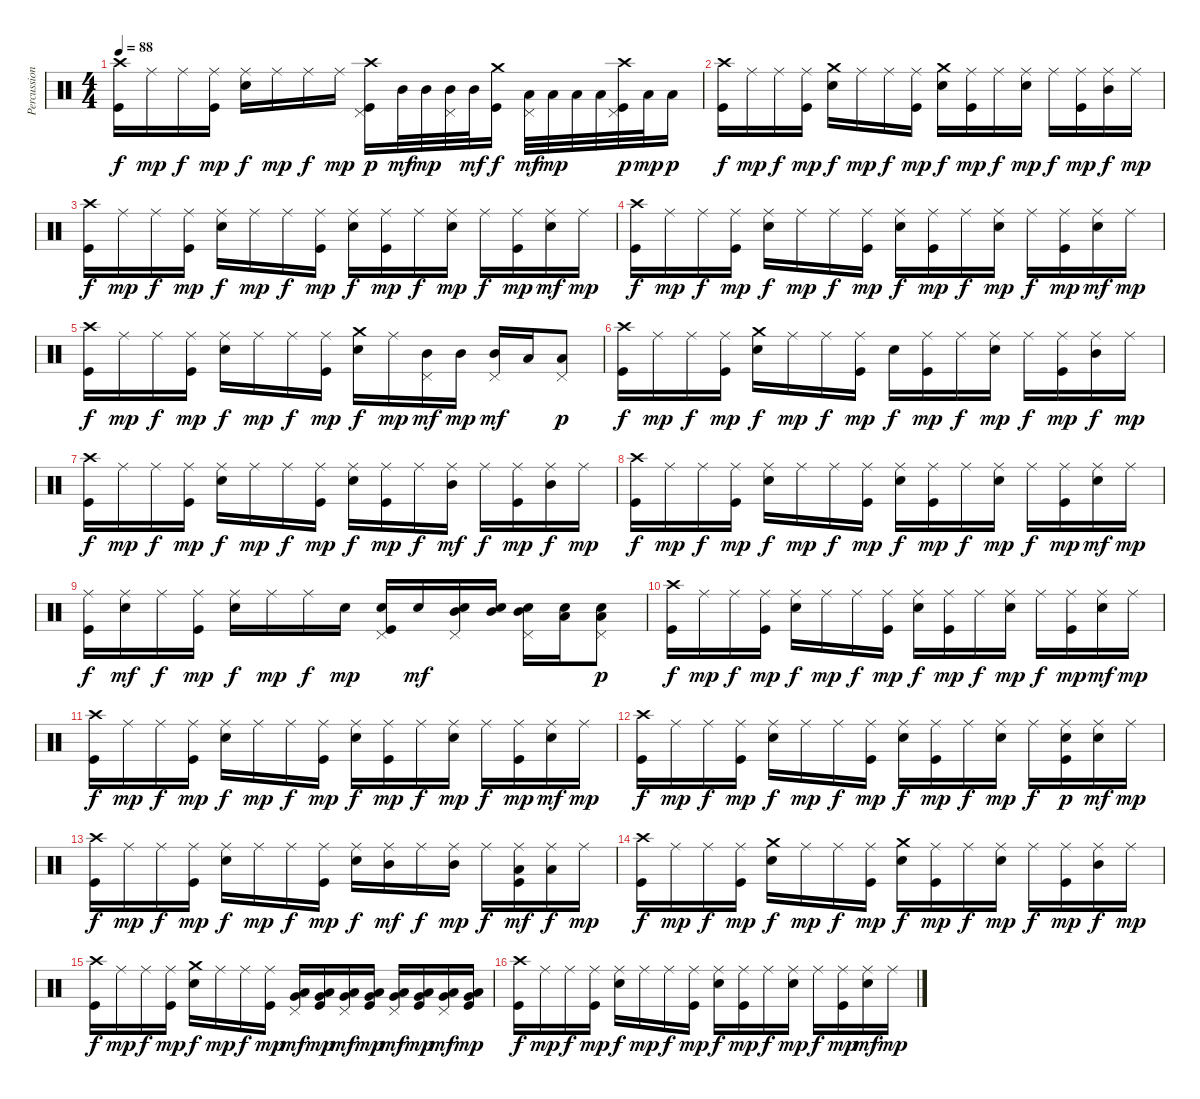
\track ("Percussion" "Percussion") {instrument percussion}
\staff {score}
\articulation defaults
\ts (4 4)
\tempo 88
\clef neutral
\ks c
("Crash high (hit)" "Kick (hit)").16{dy f} "Ride (middle)".16{dy mp} "Ride (middle)".16{dy f} ("Ride (middle)" "Kick (hit)").16{dy mp} ("Ride (middle)" "Snare (hit) 2").16{dy f} "Ride (middle)".16{dy mp} "Ride (middle)".16{dy f} "Ride (middle)".16{dy mp} ("Crash high (hit)" "Pedal Hi-Hat (hit)" "Kick (hit)").16{dy p} "Mid Tom (hit)".32{dy mf} "Mid Tom (hit)".32{dy mp} ("Pedal Hi-Hat (hit)" "Mid Tom (hit)").32 "Mid Tom (hit)".32{dy mf} ("Crash medium (hit)" "Kick (hit)").16{dy f} ("Pedal Hi-Hat (hit)" "Low Tom (hit)").32{dy mf} "Low Tom (hit)".32{dy mp} "Low Tom (hit)".32 "Low Tom (hit)".32 ("Crash high (hit)" "Pedal Hi-Hat (hit)" "Kick (hit)").32{dy p} "Low Tom (hit)".32{dy mp} "Low Tom (hit)".16{dy p} |
("Crash high (hit)" "Kick (hit)").16{dy f} "Ride (middle)".16{dy mp} "Ride (middle)".16{dy f} ("Ride (middle)" "Kick (hit)").16{dy mp} ("Crash medium (hit)" "Snare (hit) 2").16{dy f} "Ride (middle)".16{dy mp} "Ride (middle)".16{dy f} ("Ride (middle)" "Kick (hit)").16{dy mp} ("Crash medium (hit)" "Snare (hit) 2").16{dy f} ("Ride (middle)" "Kick (hit)").16{dy mp} "Ride (middle)".16{dy f} ("Ride (middle)" "Snare (hit) 2").16{dy mp} "Ride (middle)".16{dy f} ("Ride (middle)" "Kick (hit)").16{dy mp} ("Ride (middle)" "Mid Tom (hit)").16{dy f} "Ride (middle)".16{dy mp} |
("Crash high (hit)" "Kick (hit)").16{dy f} "Ride (middle)".16{dy mp} "Ride (middle)".16{dy f} ("Ride (middle)" "Kick (hit)").16{dy mp} ("Ride (middle)" "Snare (hit) 2").16{dy f} "Ride (middle)".16{dy mp} "Ride (middle)".16{dy f} ("Ride (middle)" "Kick (hit)").16{dy mp} ("Ride (middle)" "Snare (hit) 2").16{dy f} ("Ride (middle)" "Kick (hit)").16{dy mp} "Ride (middle)".16{dy f} ("Ride (middle)" "Snare (hit) 2").16{dy mp} "Ride (middle)".16{dy f} ("Ride (middle)" "Kick (hit)").16{dy mp} ("Ride (middle)" "Snare (hit) 2").16{dy mf} "Ride (middle)".16{dy mp} |
("Crash high (hit)" "Kick (hit)").16{dy f} "Ride (middle)".16{dy mp} "Ride (middle)".16{dy f} ("Ride (middle)" "Kick (hit)").16{dy mp} ("Ride (middle)" "Snare (hit) 2").16{dy f} "Ride (middle)".16{dy mp} "Ride (middle)".16{dy f} ("Ride (middle)" "Kick (hit)").16{dy mp} ("Ride (middle)" "Snare (hit) 2").16{dy f} ("Ride (middle)" "Kick (hit)").16{dy mp} "Ride (middle)".16{dy f} ("Ride (middle)" "Snare (hit) 2").16{dy mp} "Ride (middle)".16{dy f} ("Ride (middle)" "Kick (hit)").16{dy mp} ("Ride (middle)" "Snare (hit) 2").16{dy mf} "Ride (middle)".16{dy mp} |
("Crash high (hit)" "Kick (hit)").16{dy f} "Ride (middle)".16{dy mp} "Ride (middle)".16{dy f} ("Ride (middle)" "Kick (hit)").16{dy mp} ("Ride (middle)" "Snare (hit) 2").16{dy f} "Ride (middle)".16{dy mp} "Ride (middle)".16{dy f} ("Ride (middle)" "Kick (hit)").16{dy mp} ("Crash medium (hit)" "Snare (hit) 2").16{dy f} "Ride (middle)".16{dy mp} ("Pedal Hi-Hat (hit)" "Mid Tom (hit)").16{dy mf} "Mid Tom (hit)".16{dy mp} ("Pedal Hi-Hat (hit)" "Mid Tom (hit)").16{dy mf} "Low Tom (hit)".16 ("Pedal Hi-Hat (hit)" "Low Tom (hit)").8{dy p} |
("Crash high (hit)" "Kick (hit)").16{dy f} "Ride (middle)".16{dy mp} "Ride (middle)".16{dy f} ("Ride (middle)" "Kick (hit)").16{dy mp} ("Crash medium (hit)" "Snare (hit) 2").16{dy f} "Ride (middle)".16{dy mp} "Ride (middle)".16{dy f} ("Ride (middle)" "Kick (hit)").16{dy mp} "Snare (hit) 2".16{dy f} ("Ride (middle)" "Kick (hit)").16{dy mp} "Ride (middle)".16{dy f} ("Ride (middle)" "Snare (hit) 2").16{dy mp} "Ride (middle)".16{dy f} ("Ride (middle)" "Kick (hit)").16{dy mp} ("Ride (middle)" "Mid Tom (hit)").16{dy f} "Ride (middle)".16{dy mp} |
("Crash high (hit)" "Kick (hit)").16{dy f} "Ride (middle)".16{dy mp} "Ride (middle)".16{dy f} ("Ride (middle)" "Kick (hit)").16{dy mp} ("Ride (middle)" "Snare (hit) 2").16{dy f} "Ride (middle)".16{dy mp} "Ride (middle)".16{dy f} ("Ride (middle)" "Kick (hit)").16{dy mp} ("Ride (middle)" "Snare (hit) 2").16{dy f} ("Ride (middle)" "Kick (hit)").16{dy mp} "Ride (middle)".16{dy f} ("Ride (middle)" "Mid Tom (hit)").16{dy mf} "Ride (middle)".16{dy f} ("Ride (middle)" "Kick (hit)").16{dy mp} ("Ride (middle)" "Mid Tom (hit)").16{dy f} "Ride (middle)".16{dy mp} |
("Crash high (hit)" "Kick (hit)").16{dy f} "Ride (middle)".16{dy mp} "Ride (middle)".16{dy f} ("Ride (middle)" "Kick (hit)").16{dy mp} ("Ride (middle)" "Snare (hit) 2").16{dy f} "Ride (middle)".16{dy mp} "Ride (middle)".16{dy f} ("Ride (middle)" "Kick (hit)").16{dy mp} ("Ride (middle)" "Snare (hit) 2").16{dy f} ("Ride (middle)" "Kick (hit)").16{dy mp} "Ride (middle)".16{dy f} ("Ride (middle)" "Snare (hit) 2").16{dy mp} "Ride (middle)".16{dy f} ("Ride (middle)" "Kick (hit)").16{dy mp} ("Ride (middle)" "Snare (hit) 2").16{dy mf} "Ride (middle)".16{dy mp} |
("Ride (middle)" "Kick (hit)").16{dy f} ("Ride (middle)" "Snare (hit) 2").16{dy mf} "Ride (middle)".16{dy f} ("Ride (middle)" "Kick (hit)").16{dy mp} ("Ride (middle)" "Snare (hit) 2").16{dy f} "Ride (middle)".16{dy mp} "Ride (middle)".16{dy f} "Snare (hit) 2".16{dy mp} ("Pedal Hi-Hat (hit)" "Snare (hit) 2" "Kick (hit)").16 "Snare (hit) 2".16{dy mf} ("Pedal Hi-Hat (hit)" "Mid Tom (hit)" "Snare (hit) 2").16 ("Mid Tom (hit)" "Snare (hit) 2").16 ("Pedal Hi-Hat (hit)" "Mid Tom (hit)" "Snare (hit) 2").16 ("Low Tom (hit)" "Snare (hit) 2").16 ("Pedal Hi-Hat (hit)" "Low Tom (hit)" "Snare (hit) 2").8{dy p} |
("Crash high (hit)" "Kick (hit)").16{dy f} "Ride (middle)".16{dy mp} "Ride (middle)".16{dy f} ("Ride (middle)" "Kick (hit)").16{dy mp} ("Ride (middle)" "Snare (hit) 2").16{dy f} "Ride (middle)".16{dy mp} "Ride (middle)".16{dy f} ("Ride (middle)" "Kick (hit)").16{dy mp} ("Ride (middle)" "Snare (hit) 2").16{dy f} ("Ride (middle)" "Kick (hit)").16{dy mp} "Ride (middle)".16{dy f} ("Ride (middle)" "Snare (hit) 2").16{dy mp} "Ride (middle)".16{dy f} ("Ride (middle)" "Kick (hit)").16{dy mp} ("Ride (middle)" "Snare (hit) 2").16{dy mf} "Ride (middle)".16{dy mp} |
("Crash high (hit)" "Kick (hit)").16{dy f} "Ride (middle)".16{dy mp} "Ride (middle)".16{dy f} ("Ride (middle)" "Kick (hit)").16{dy mp} ("Ride (middle)" "Snare (hit) 2").16{dy f} "Ride (middle)".16{dy mp} "Ride (middle)".16{dy f} ("Ride (middle)" "Kick (hit)").16{dy mp} ("Ride (middle)" "Snare (hit) 2").16{dy f} ("Ride (middle)" "Kick (hit)").16{dy mp} "Ride (middle)".16{dy f} ("Ride (middle)" "Snare (hit) 2").16{dy mp} "Ride (middle)".16{dy f} ("Ride (middle)" "Kick (hit)").16{dy mp} ("Ride (middle)" "Snare (hit) 2").16{dy mf} "Ride (middle)".16{dy mp} |
("Crash high (hit)" "Kick (hit)").16{dy f} "Ride (middle)".16{dy mp} "Ride (middle)".16{dy f} ("Ride (middle)" "Kick (hit)").16{dy mp} ("Ride (middle)" "Snare (hit) 2").16{dy f} "Ride (middle)".16{dy mp} "Ride (middle)".16{dy f} ("Ride (middle)" "Kick (hit)").16{dy mp} ("Ride (middle)" "Snare (hit) 2").16{dy f} ("Ride (middle)" "Kick (hit)").16{dy mp} "Ride (middle)".16{dy f} ("Ride (middle)" "Snare (hit) 2").16{dy mp} "Ride (middle)".16{dy f} ("Ride (middle)" "Snare (hit) 2" "Kick (hit)").16{dy p} ("Ride (middle)" "Snare (hit) 2").16{dy mf} "Ride (middle)".16{dy mp} |
("Crash high (hit)" "Kick (hit)").16{dy f} "Ride (middle)".16{dy mp} "Ride (middle)".16{dy f} ("Ride (middle)" "Kick (hit)").16{dy mp} ("Ride (middle)" "Snare (hit) 2").16{dy f} "Ride (middle)".16{dy mp} "Ride (middle)".16{dy f} ("Ride (middle)" "Kick (hit)").16{dy mp} ("Ride (middle)" "Snare (hit) 2").16{dy f} ("Ride (middle)" "Mid Tom (hit)").16{dy mf} "Ride (middle)".16{dy f} ("Ride (middle)" "Mid Tom (hit)").16{dy mp} "Ride (middle)".16{dy f} ("Ride (middle)" "Low Tom (hit)" "Kick (hit)").16{dy mf} ("Ride (middle)" "Low Tom (hit)").16{dy f} "Ride (middle)".16{dy mp} |
("Crash high (hit)" "Kick (hit)").16{dy f} "Ride (middle)".16{dy mp} "Ride (middle)".16{dy f} ("Ride (middle)" "Kick (hit)").16{dy mp} ("Crash medium (hit)" "Snare (hit) 2").16{dy f} "Ride (middle)".16{dy mp} "Ride (middle)".16{dy f} ("Ride (middle)" "Kick (hit)").16{dy mp} ("Crash medium (hit)" "Snare (hit) 2").16{dy f} ("Ride (middle)" "Kick (hit)").16{dy mp} "Ride (middle)".16{dy f} ("Ride (middle)" "Snare (hit) 2").16{dy mp} "Ride (middle)".16{dy f} ("Ride (middle)" "Kick (hit)").16{dy mp} ("Ride (middle)" "Mid Tom (hit)").16{dy f} "Ride (middle)".16{dy mp} |
("Crash high (hit)" "Kick (hit)").16{dy f} "Ride (middle)".16{dy mp} "Ride (middle)".16{dy f} ("Ride (middle)" "Kick (hit)").16{dy mp} ("Crash medium (hit)" "Snare (hit) 2").16{dy f} "Ride (middle)".16{dy mp} "Ride (middle)".16{dy f} ("Ride (middle)" "Kick (hit)").16{dy mp} ("Pedal Hi-Hat (hit)" "Very Low Tom (hit)" "Low Tom (hit)").16{dy mf} ("Very Low Tom (hit)" "Low Tom (hit)" "Kick (hit)").16{dy mp} ("Pedal Hi-Hat (hit)" "Very Low Tom (hit)" "Low Tom (hit)").16{dy mf} ("Very Low Tom (hit)" "Low Tom (hit)" "Kick (hit)").16{dy mp} ("Pedal Hi-Hat (hit)" "Very Low Tom (hit)" "Low Tom (hit)").16{dy mf} ("Very Low Tom (hit)" "Low Tom (hit)" "Kick (hit)").16{dy mp} ("Pedal Hi-Hat (hit)" "Very Low Tom (hit)" "Low Tom (hit)").16{dy mf} ("Very Low Tom (hit)" "Low Tom (hit)" "Kick (hit)").16{dy mp} |
("Crash high (hit)" "Kick (hit)").16{dy f} "Ride (middle)".16{dy mp} "Ride (middle)".16{dy f} ("Ride (middle)" "Kick (hit)").16{dy mp} ("Ride (middle)" "Snare (hit) 2").16{dy f} "Ride (middle)".16{dy mp} "Ride (middle)".16{dy f} ("Ride (middle)" "Kick (hit)").16{dy mp} ("Ride (middle)" "Snare (hit) 2").16{dy f} ("Ride (middle)" "Kick (hit)").16{dy mp} "Ride (middle)".16{dy f} ("Ride (middle)" "Snare (hit) 2").16{dy mp} "Ride (middle)".16{dy f} ("Ride (middle)" "Kick (hit)").16{dy mp} ("Ride (middle)" "Snare (hit) 2").16{dy mf} "Ride (middle)".16{dy mp}
